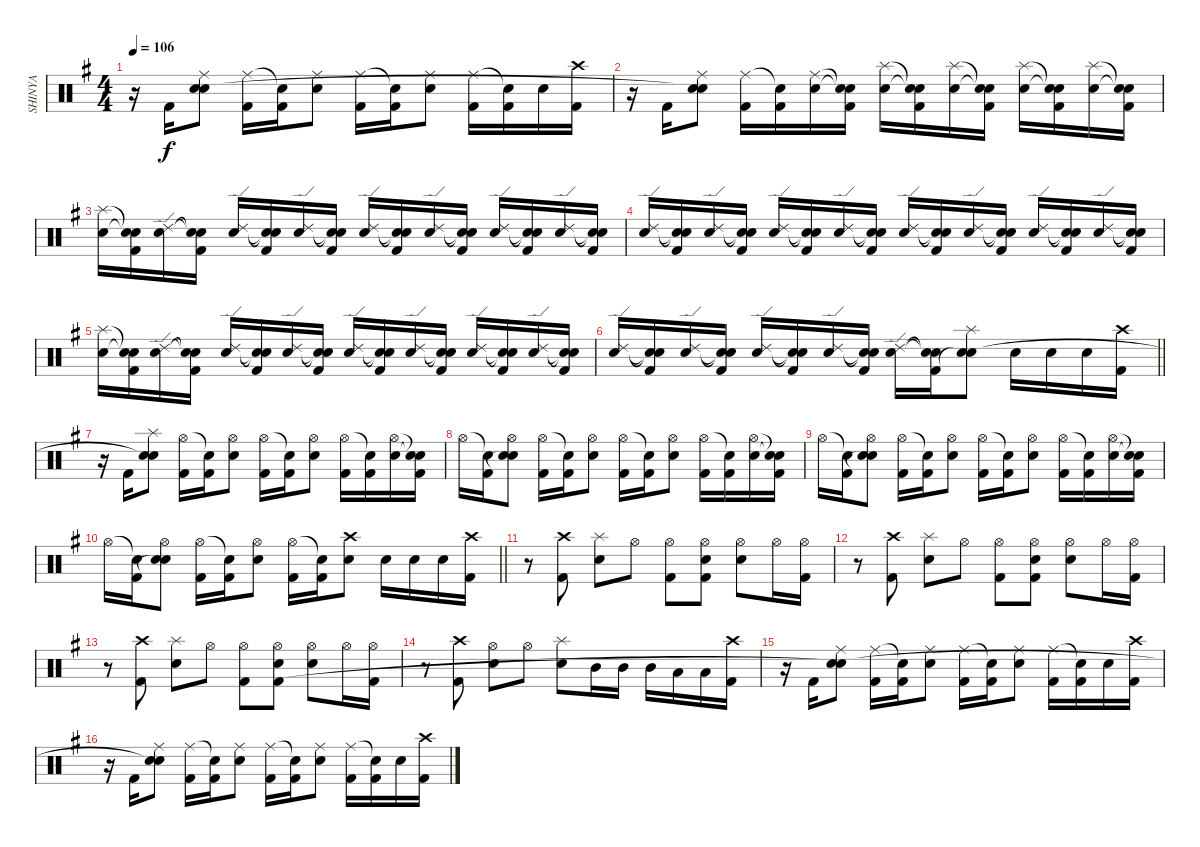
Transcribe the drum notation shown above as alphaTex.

\track ("SHINYA" "SHINYA") {instrument percussion}
\staff {score}
\articulation defaults
\ts (4 4)
\tempo 106
\clef neutral
\ks g
r.16{dy f} "Kick (hit) 2".16 ("Ride (middle)" "Electric Snare (hit)" "Snare (hit)"{t}).8 ("Ride (middle)" "Kick (hit) 2").16 ("Snare (hit)"{t} "Kick (hit) 2").16 ("Ride (middle)" "Electric Snare (hit)").8 ("Ride (middle)" "Kick (hit) 2").16 ("Snare (hit)"{t} "Kick (hit) 2").16 ("Ride (middle)" "Electric Snare (hit)").8 ("Ride (middle)" "Kick (hit) 2").16 ("Snare (hit)"{t} "Kick (hit) 2").16 "Electric Snare (hit)".16 ("Crash high (hit)" "Kick (hit) 2").16 |
r.16 "Kick (hit) 2".16 ("Ride (middle)" "Electric Snare (hit)" "Snare (hit)"{t}).8 ("Ride (middle)" "Kick (hit) 2").16 ("Snare (hit)"{t} "Kick (hit) 2").16 ("Ride (middle)" "Electric Snare (hit)").16 ("Snare (hit)"{t} "Snare (hit)"{t} "Kick (hit) 2").16 ("Splash (hit)" "Electric Snare (hit)").16 ("Snare (hit)"{t} "Snare (hit)"{t} "Kick (hit) 2").16 ("Splash (hit)" "Electric Snare (hit)").16 ("Snare (hit)"{t} "Snare (hit)"{t} "Kick (hit) 2").16 ("Splash (hit)" "Electric Snare (hit)").16 ("Snare (hit)"{t} "Snare (hit)"{t} "Kick (hit) 2").16 ("Splash (hit)" "Electric Snare (hit)").16 ("Snare (hit)"{t} "Snare (hit)"{t} "Kick (hit) 2").16 |
("Splash (hit)" "Electric Snare (hit)").16 ("Snare (hit)"{t} "Snare (hit)"{t} "Kick (hit) 2").16 ("Ride (edge) 2" "Electric Snare (hit)").16 ("Snare (hit)"{t} "Snare (hit)"{t} "Kick (hit) 2").16 ("Ride (edge) 2" "Electric Snare (hit)").16 ("Snare (hit)"{t} "Snare (hit)"{t} "Kick (hit) 2").16 ("Ride (edge) 2" "Electric Snare (hit)").16 ("Snare (hit)"{t} "Snare (hit)"{t} "Kick (hit) 2").16 ("Ride (edge) 2" "Electric Snare (hit)").16 ("Snare (hit)"{t} "Snare (hit)"{t} "Kick (hit) 2").16 ("Ride (edge) 2" "Electric Snare (hit)").16 ("Snare (hit)"{t} "Snare (hit)"{t} "Kick (hit) 2").16 ("Ride (edge) 2" "Electric Snare (hit)").16 ("Snare (hit)"{t} "Snare (hit)"{t} "Kick (hit) 2").16 ("Ride (edge) 2" "Electric Snare (hit)").16 ("Snare (hit)"{t} "Snare (hit)"{t} "Kick (hit) 2").16 |
("Ride (edge) 2" "Electric Snare (hit)").16 ("Snare (hit)"{t} "Snare (hit)"{t} "Kick (hit) 2").16 ("Ride (edge) 2" "Electric Snare (hit)").16 ("Snare (hit)"{t} "Snare (hit)"{t} "Kick (hit) 2").16 ("Ride (edge) 2" "Electric Snare (hit)").16 ("Snare (hit)"{t} "Snare (hit)"{t} "Kick (hit) 2").16 ("Ride (edge) 2" "Electric Snare (hit)").16 ("Snare (hit)"{t} "Snare (hit)"{t} "Kick (hit) 2").16 ("Ride (edge) 2" "Electric Snare (hit)").16 ("Snare (hit)"{t} "Snare (hit)"{t} "Kick (hit) 2").16 ("Ride (edge) 2" "Electric Snare (hit)").16 ("Snare (hit)"{t} "Snare (hit)"{t} "Kick (hit) 2").16 ("Ride (edge) 2" "Electric Snare (hit)").16 ("Snare (hit)"{t} "Snare (hit)"{t} "Kick (hit) 2").16 ("Ride (edge) 2" "Electric Snare (hit)").16 ("Snare (hit)"{t} "Snare (hit)"{t} "Kick (hit) 2").16 |
("Splash (hit)" "Electric Snare (hit)").16 ("Snare (hit)"{t} "Snare (hit)"{t} "Kick (hit) 2").16 ("Ride (edge) 2" "Electric Snare (hit)").16 ("Snare (hit)"{t} "Snare (hit)"{t} "Kick (hit) 2").16 ("Ride (edge) 2" "Electric Snare (hit)").16 ("Snare (hit)"{t} "Snare (hit)"{t} "Kick (hit) 2").16 ("Ride (edge) 2" "Electric Snare (hit)").16 ("Snare (hit)"{t} "Snare (hit)"{t} "Kick (hit) 2").16 ("Ride (edge) 2" "Electric Snare (hit)").16 ("Snare (hit)"{t} "Snare (hit)"{t} "Kick (hit) 2").16 ("Ride (edge) 2" "Electric Snare (hit)").16 ("Snare (hit)"{t} "Snare (hit)"{t} "Kick (hit) 2").16 ("Ride (edge) 2" "Electric Snare (hit)").16 ("Snare (hit)"{t} "Snare (hit)"{t} "Kick (hit) 2").16 ("Ride (edge) 2" "Electric Snare (hit)").16 ("Snare (hit)"{t} "Snare (hit)"{t} "Kick (hit) 2").16 |
\barLineRight lightlight
("Ride (edge) 2" "Electric Snare (hit)").16 ("Snare (hit)"{t} "Snare (hit)"{t} "Kick (hit) 2").16 ("Ride (edge) 2" "Electric Snare (hit)").16 ("Snare (hit)"{t} "Snare (hit)"{t} "Kick (hit) 2").16 ("Ride (edge) 2" "Electric Snare (hit)").16 ("Snare (hit)"{t} "Snare (hit)"{t} "Kick (hit) 2").16 ("Ride (edge) 2" "Electric Snare (hit)").16 ("Snare (hit)"{t} "Snare (hit)"{t} "Kick (hit) 2").16 ("Ride (edge) 2" "Electric Snare (hit)").16 ("Snare (hit)"{t} "Snare (hit)"{t} "Kick (hit) 2").16 ("Splash (hit)" "Electric Snare (hit)" "Snare (hit)"{t}).8 "Electric Snare (hit)".16 "Electric Snare (hit)".16 "Electric Snare (hit)".16 ("Crash high (hit)" "Kick (hit) 2").16 |
r.16 "Kick (hit) 2".16 ("Splash (hit)" "Electric Snare (hit)" "Snare (hit)"{t}).8 ("Hi-Hat (open)" "Kick (hit) 2").16 ("Snare (hit)"{t} "Kick (hit) 2").16 ("Hi-Hat (open)" "Electric Snare (hit)").8 ("Hi-Hat (open)" "Kick (hit) 2").16 ("Snare (hit)"{t} "Kick (hit) 2").16 ("Hi-Hat (open)" "Electric Snare (hit)").8 ("Hi-Hat (open)" "Kick (hit) 2").16 ("Snare (hit)"{t} "Kick (hit) 2").16 ("Hi-Hat (open)" "Electric Snare (hit)").16 ("Snare (hit)"{t} "Snare (hit)"{t} "Kick (hit) 2").16 |
"Hi-Hat (open)".16 ("Snare (hit)"{t} "Kick (hit) 2").16 ("Hi-Hat (open)" "Snare (hit)"{t} "Electric Snare (hit)").8 ("Hi-Hat (open)" "Kick (hit) 2").16 ("Snare (hit)"{t} "Kick (hit) 2").16 ("Hi-Hat (open)" "Electric Snare (hit)").8 ("Hi-Hat (open)" "Kick (hit) 2").16 ("Snare (hit)"{t} "Kick (hit) 2").16 ("Hi-Hat (open)" "Electric Snare (hit)").8 ("Hi-Hat (open)" "Kick (hit) 2").16 ("Snare (hit)"{t} "Kick (hit) 2").16 ("Hi-Hat (open)" "Electric Snare (hit)").16 ("Snare (hit)"{t} "Snare (hit)"{t} "Kick (hit) 2").16 |
"Hi-Hat (open)".16 ("Snare (hit)"{t} "Kick (hit) 2").16 ("Hi-Hat (open)" "Snare (hit)"{t} "Electric Snare (hit)").8 ("Hi-Hat (open)" "Kick (hit) 2").16 ("Snare (hit)"{t} "Kick (hit) 2").16 ("Hi-Hat (open)" "Electric Snare (hit)").8 ("Hi-Hat (open)" "Kick (hit) 2").16 ("Snare (hit)"{t} "Kick (hit) 2").16 ("Hi-Hat (open)" "Electric Snare (hit)").8 ("Hi-Hat (open)" "Kick (hit) 2").16 ("Snare (hit)"{t} "Kick (hit) 2").16 ("Hi-Hat (open)" "Electric Snare (hit)").16 ("Snare (hit)"{t} "Snare (hit)"{t} "Kick (hit) 2").16 |
\barLineRight lightlight "Hi-Hat (open)".16
("Snare (hit)"{t} "Kick (hit) 2").16 ("Hi-Hat (open)" "Snare (hit)"{t} "Electric Snare (hit)").8 ("Hi-Hat (open)" "Kick (hit) 2").16 ("Snare (hit)"{t} "Kick (hit) 2").16 ("Hi-Hat (open)" "Electric Snare (hit)").8 ("Hi-Hat (open)" "Kick (hit) 2").16 ("Snare (hit)"{t} "Kick (hit) 2").16 ("Crash high (hit)" "Electric Snare (hit)").8 "Electric Snare (hit)".16 "Electric Snare (hit)".16 "Electric Snare (hit)".16 ("Crash high (hit)" "Kick (hit) 2").16 |
r.8 ("Crash high (hit)" "Kick (hit) 2").8 ("Splash (hit)" "Electric Snare (hit)").8 "Hi-Hat (open)".8 ("Hi-Hat (open)" "Kick (hit) 2").8 ("Hi-Hat (open)" "Electric Snare (hit)" "Kick (hit) 2").8 ("Hi-Hat (open)" "Electric Snare (hit)").8 "Hi-Hat (open)".16 ("Hi-Hat (open)" "Kick (hit) 2").16 |
r.8 ("Crash high (hit)" "Kick (hit) 2").8 ("Splash (hit)" "Electric Snare (hit)").8 "Hi-Hat (open)".8 ("Hi-Hat (open)" "Kick (hit) 2").8 ("Hi-Hat (open)" "Electric Snare (hit)" "Kick (hit) 2").8 ("Hi-Hat (open)" "Electric Snare (hit)").8 "Hi-Hat (open)".16 ("Hi-Hat (open)" "Kick (hit) 2").16 |
r.8 ("Crash high (hit)" "Kick (hit) 2").8 ("Splash (hit)" "Electric Snare (hit)").8 "Hi-Hat (open)".8 ("Hi-Hat (open)" "Kick (hit) 2").8 ("Hi-Hat (open)" "Electric Snare (hit)" "Kick (hit) 2").8 ("Hi-Hat (open)" "Electric Snare (hit)").8 "Hi-Hat (open)".16 ("Hi-Hat (open)" "Kick (hit) 2").16 |
r.8 ("Crash high (hit)" "Kick (hit) 2").8 ("Hi-Hat (open)" "Electric Snare (hit)").8 "Hi-Hat (open)".8 ("Splash (hit)" "Electric Snare (hit)").8 "Mid Tom (hit)".16 "Mid Tom (hit)".16 "Mid Tom (hit)".16 "Low Tom (hit)".16 "Low Tom (hit)".16 ("Crash high (hit)" "Kick (hit) 2").16 |
r.16 "Kick (hit) 2".16 ("Ride (middle)" "Electric Snare (hit)" "Snare (hit)"{t}).8 ("Ride (middle)" "Kick (hit) 2").16 ("Snare (hit)"{t} "Kick (hit) 2").16 ("Ride (middle)" "Electric Snare (hit)").8 ("Ride (middle)" "Kick (hit) 2").16 ("Snare (hit)"{t} "Kick (hit) 2").16 ("Ride (middle)" "Electric Snare (hit)").8 ("Ride (middle)" "Kick (hit) 2").16 ("Snare (hit)"{t} "Kick (hit) 2").16 "Electric Snare (hit)".16 ("Crash high (hit)" "Kick (hit) 2").16 |
r.16 "Kick (hit) 2".16 ("Ride (middle)" "Electric Snare (hit)" "Snare (hit)"{t}).8 ("Ride (middle)" "Kick (hit) 2").16 ("Snare (hit)"{t} "Kick (hit) 2").16 ("Ride (middle)" "Electric Snare (hit)").8 ("Ride (middle)" "Kick (hit) 2").16 ("Snare (hit)"{t} "Kick (hit) 2").16 ("Ride (middle)" "Electric Snare (hit)").8 ("Ride (middle)" "Kick (hit) 2").16 ("Snare (hit)"{t} "Kick (hit) 2").16 "Electric Snare (hit)".16 ("Crash high (hit)" "Kick (hit) 2").16
